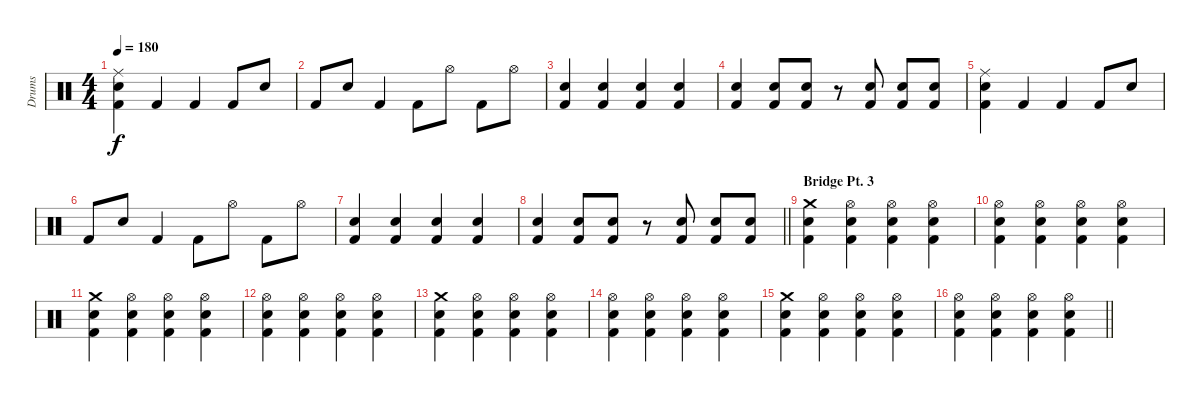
\track ("Drums" "Drums") {instrument percussion}
\staff {score}
\articulation defaults
\ts (4 4)
\tempo 180
\clef neutral
\ks c
("Ride (middle)" "Electric Snare (hit)" "Kick (hit) 2").4{dy f} "Kick (hit) 2".4 "Kick (hit) 2".4 "Kick (hit) 2".8 "Electric Snare (hit)".8 |
"Kick (hit) 2".8 "Electric Snare (hit)".8 "Kick (hit) 2".4 "Kick (hit) 2".8 "Hi-Hat (open)".8 "Kick (hit) 2".8 "Hi-Hat (open)".8 |
("Electric Snare (hit)" "Kick (hit) 2").4 ("Electric Snare (hit)" "Kick (hit) 2").4 ("Electric Snare (hit)" "Kick (hit) 2").4 ("Electric Snare (hit)" "Kick (hit) 2").4 |
("Electric Snare (hit)" "Kick (hit) 2").4 ("Electric Snare (hit)" "Kick (hit) 2").8 ("Electric Snare (hit)" "Kick (hit) 2").8 r.8 ("Electric Snare (hit)" "Kick (hit) 2").8 ("Electric Snare (hit)" "Kick (hit) 2").8 ("Electric Snare (hit)" "Kick (hit) 2").8 |
("Ride (middle)" "Electric Snare (hit)" "Kick (hit) 2").4 "Kick (hit) 2".4 "Kick (hit) 2".4 "Kick (hit) 2".8 "Electric Snare (hit)".8 |
"Kick (hit) 2".8 "Electric Snare (hit)".8 "Kick (hit) 2".4 "Kick (hit) 2".8 "Hi-Hat (open)".8 "Kick (hit) 2".8 "Hi-Hat (open)".8 |
("Electric Snare (hit)" "Kick (hit) 2").4 ("Electric Snare (hit)" "Kick (hit) 2").4 ("Electric Snare (hit)" "Kick (hit) 2").4 ("Electric Snare (hit)" "Kick (hit) 2").4 |
\barLineRight lightlight
("Electric Snare (hit)" "Kick (hit) 2").4 ("Electric Snare (hit)" "Kick (hit) 2").8 ("Electric Snare (hit)" "Kick (hit) 2").8 r.8 ("Electric Snare (hit)" "Kick (hit) 2").8 ("Electric Snare (hit)" "Kick (hit) 2").8 ("Electric Snare (hit)" "Kick (hit) 2").8 |
\section ("" "Bridge Pt. 3")
("Crash medium (hit)" "Electric Snare (hit)" "Kick (hit) 2").4 ("Hi-Hat (open)" "Electric Snare (hit)" "Kick (hit) 2").4 ("Hi-Hat (open)" "Electric Snare (hit)" "Kick (hit) 2").4 ("Hi-Hat (open)" "Electric Snare (hit)" "Kick (hit) 2").4 |
("Hi-Hat (open)" "Electric Snare (hit)" "Kick (hit) 2").4 ("Hi-Hat (open)" "Electric Snare (hit)" "Kick (hit) 2").4 ("Hi-Hat (open)" "Electric Snare (hit)" "Kick (hit) 2").4 ("Hi-Hat (open)" "Electric Snare (hit)" "Kick (hit) 2").4 |
("Crash medium (hit)" "Electric Snare (hit)" "Kick (hit) 2").4 ("Hi-Hat (open)" "Electric Snare (hit)" "Kick (hit) 2").4 ("Hi-Hat (open)" "Electric Snare (hit)" "Kick (hit) 2").4 ("Hi-Hat (open)" "Electric Snare (hit)" "Kick (hit) 2").4 |
("Hi-Hat (open)" "Electric Snare (hit)" "Kick (hit) 2").4 ("Hi-Hat (open)" "Electric Snare (hit)" "Kick (hit) 2").4 ("Hi-Hat (open)" "Electric Snare (hit)" "Kick (hit) 2").4 ("Hi-Hat (open)" "Electric Snare (hit)" "Kick (hit) 2").4 |
("Crash medium (hit)" "Electric Snare (hit)" "Kick (hit) 2").4 ("Hi-Hat (open)" "Electric Snare (hit)" "Kick (hit) 2").4 ("Hi-Hat (open)" "Electric Snare (hit)" "Kick (hit) 2").4 ("Hi-Hat (open)" "Electric Snare (hit)" "Kick (hit) 2").4 |
("Hi-Hat (open)" "Electric Snare (hit)" "Kick (hit) 2").4 ("Hi-Hat (open)" "Electric Snare (hit)" "Kick (hit) 2").4 ("Hi-Hat (open)" "Electric Snare (hit)" "Kick (hit) 2").4 ("Hi-Hat (open)" "Electric Snare (hit)" "Kick (hit) 2").4 |
("Crash medium (hit)" "Electric Snare (hit)" "Kick (hit) 2").4 ("Hi-Hat (open)" "Electric Snare (hit)" "Kick (hit) 2").4 ("Hi-Hat (open)" "Electric Snare (hit)" "Kick (hit) 2").4 ("Hi-Hat (open)" "Electric Snare (hit)" "Kick (hit) 2").4 |
\barLineRight lightlight
("Hi-Hat (open)" "Electric Snare (hit)" "Kick (hit) 2").4 ("Hi-Hat (open)" "Electric Snare (hit)" "Kick (hit) 2").4 ("Hi-Hat (open)" "Electric Snare (hit)" "Kick (hit) 2").4 ("Hi-Hat (open)" "Electric Snare (hit)" "Kick (hit) 2").4
